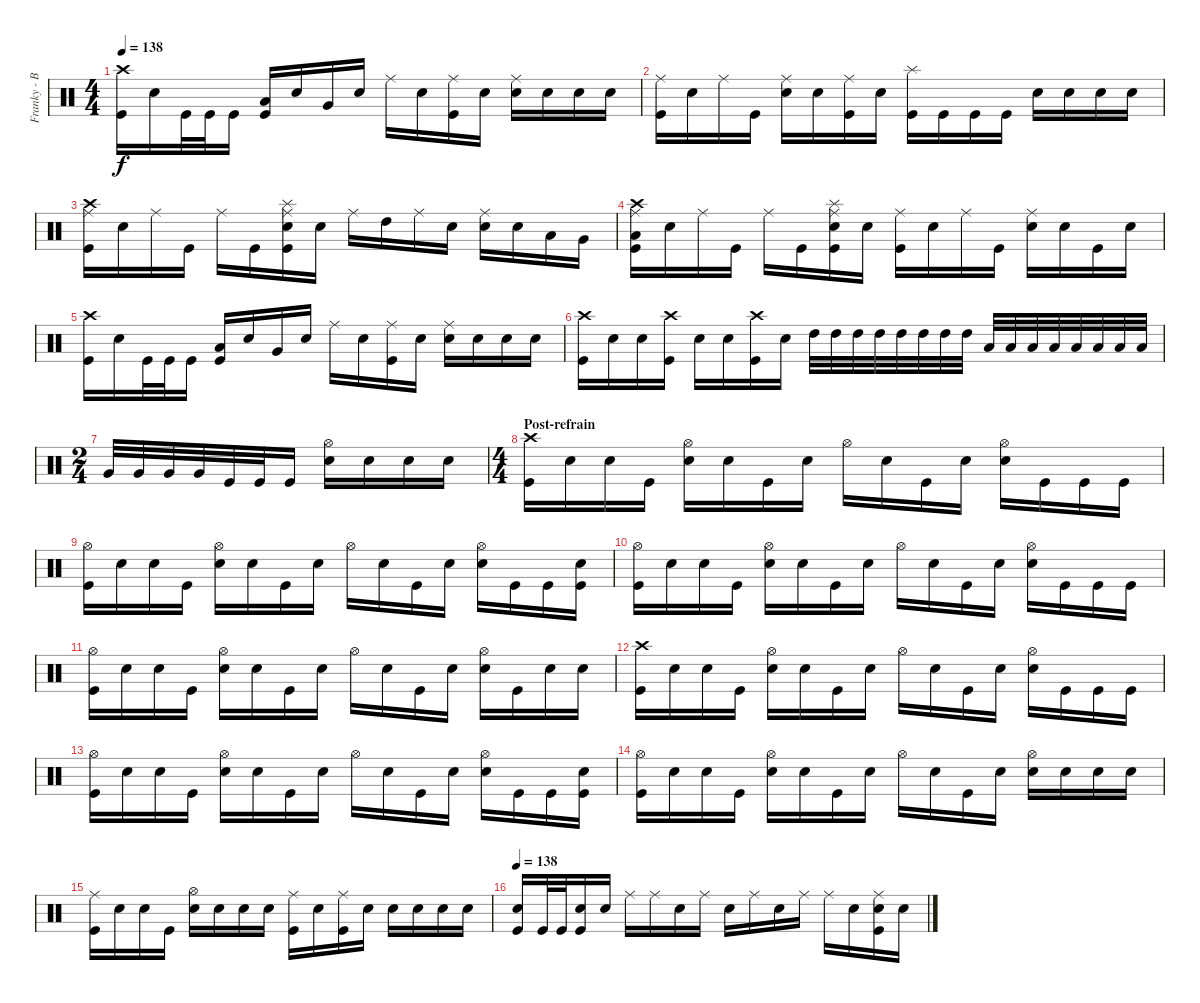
\track ("Franky - Batterie" "Franky - B") {instrument percussion}
\staff {score}
\articulation defaults
\ts (4 4)
\tempo 138
\clef neutral
\ks c
("Crash high (hit)" "Kick (hit)").16{dy f} "Snare (hit)".16 "Kick (hit)".32 "Kick (hit)".32 "Kick (hit)".16 ("Low Tom (hit)" "Kick (hit)").16 "Snare (hit)".16 "Very Low Tom (hit)".16 "Snare (hit)".16 "Ride (middle)".16 "Electric Snare (hit)".16 ("Ride (middle)" "Kick (hit)").16 "Snare (hit)".16 ("Ride (middle)" "Electric Snare (hit)").16 "Snare (hit)".16 "Electric Snare (hit)".16 "Electric Snare (hit)".16 |
("Ride (middle)" "Kick (hit)").16 "Snare (hit)".16 "Ride (middle)".16 "Kick (hit)".16 ("Ride (middle)" "Electric Snare (hit)").16 "Snare (hit)".16 ("Ride (middle)" "Kick (hit)").16 "Snare (hit)".16 ("Splash (hit)" "Kick (hit)").16 "Kick (hit)".16 "Kick (hit)".16 "Kick (hit)".16 "Electric Snare (hit)".16 "Electric Snare (hit)".16 "Electric Snare (hit)".16 "Electric Snare (hit)".16 |
("Crash high (hit)" "Ride (middle)" "Kick (hit)").16 "Snare (hit)".16 "Ride (middle)".16 "Kick (hit)".16 "Ride (middle)".16 "Kick (hit)".16 ("Splash (hit)" "Ride (middle)" "Electric Snare (hit)" "Kick (hit)").16 "Snare (hit)".16 "Ride (middle)".16 "High Tom (hit)".16 "Ride (middle)".16 "Snare (hit)".16 ("Ride (middle)" "Electric Snare (hit)").16 "Snare (hit)".16 "Low Tom (hit)".16 "Very Low Tom (hit)".16 |
("Crash high (hit)" "Ride (middle)" "Low Floor Tom (hit)" "Kick (hit)").16 "Snare (hit)".16 "Ride (middle)".16 "Kick (hit)".16 "Ride (middle)".16 "Kick (hit)".16 ("Splash (hit)" "Ride (middle)" "Electric Snare (hit)" "Kick (hit)").16 "Snare (hit)".16 ("Ride (middle)" "Kick (hit)").16 "Snare (hit)".16 "Ride (middle)".16 "Kick (hit)".16 ("Ride (middle)" "Electric Snare (hit)").16 "Snare (hit)".16 "Kick (hit)".16 "Snare (hit)".16 |
("Crash high (hit)" "Kick (hit)").16 "Snare (hit)".16 "Kick (hit)".32 "Kick (hit)".32 "Kick (hit)".16 ("Low Tom (hit)" "Kick (hit)").16 "Snare (hit)".16 "Very Low Tom (hit)".16 "Snare (hit)".16 "Ride (middle)".16 "Electric Snare (hit)".16 ("Ride (middle)" "Kick (hit)").16 "Snare (hit)".16 ("Ride (middle)" "Electric Snare (hit)").16 "Snare (hit)".16 "Electric Snare (hit)".16 "Electric Snare (hit)".16 |
("Crash high (hit)" "Kick (hit)").16 "Snare (hit)".16 "Snare (hit)".16 ("Crash high (hit)" "Kick (hit)").16 "Snare (hit)".16 "Snare (hit)".16 ("Crash high (hit)" "Kick (hit)").16 "Snare (hit)".16 "High Tom (hit)".32 "High Tom (hit)".32 "High Tom (hit)".32 "High Tom (hit)".32 "High Tom (hit)".32 "High Tom (hit)".32 "High Tom (hit)".32 "High Tom (hit)".32 "Low Tom (hit)".32 "Low Tom (hit)".32 "Low Tom (hit)".32 "Low Tom (hit)".32 "Low Tom (hit)".32 "Low Tom (hit)".32 "Low Tom (hit)".32 "Low Tom (hit)".32 |
\ts (2 4)
"Very Low Tom (hit)".32 "Very Low Tom (hit)".32 "Very Low Tom (hit)".32 "Very Low Tom (hit)".32 "Kick (hit)".32 "Kick (hit)".32 "Kick (hit)".16 ("Hi-Hat (open)" "Electric Snare (hit)").16 "Snare (hit)".16 "Snare (hit)".16 "Snare (hit)".16 |
\ts (4 4)
\section ("" "Post-refrain")
("Crash high (hit)" "Kick (hit)").16 "Snare (hit)".16 "Snare (hit)".16 "Kick (hit)".16 ("Hi-Hat (open)" "Electric Snare (hit)").16 "Snare (hit)".16 "Kick (hit)".16 "Snare (hit)".16 "Hi-Hat (open)".16 "Snare (hit)".16 "Kick (hit)".16 "Snare (hit)".16 ("Hi-Hat (open)" "Electric Snare (hit)").16 "Kick (hit)".16 "Kick (hit)".16 "Kick (hit)".16 |
("Hi-Hat (open)" "Kick (hit)").16 "Snare (hit)".16 "Snare (hit)".16 "Kick (hit)".16 ("Hi-Hat (open)" "Electric Snare (hit)").16 "Snare (hit)".16 "Kick (hit)".16 "Snare (hit)".16 "Hi-Hat (open)".16 "Electric Snare (hit)".16 "Kick (hit)".16 "Snare (hit)".16 ("Hi-Hat (open)" "Electric Snare (hit)").16 "Kick (hit)".16 "Kick (hit)".16 ("Electric Snare (hit)" "Kick (hit)").16 |
("Hi-Hat (open)" "Kick (hit)").16 "Snare (hit)".16 "Snare (hit)".16 "Kick (hit)".16 ("Hi-Hat (open)" "Electric Snare (hit)").16 "Snare (hit)".16 "Kick (hit)".16 "Snare (hit)".16 "Hi-Hat (open)".16 "Snare (hit)".16 "Kick (hit)".16 "Snare (hit)".16 ("Hi-Hat (open)" "Electric Snare (hit)").16 "Kick (hit)".16 "Kick (hit)".16 "Kick (hit)".16 |
("Hi-Hat (open)" "Kick (hit)").16 "Snare (hit)".16 "Snare (hit)".16 "Kick (hit)".16 ("Hi-Hat (open)" "Electric Snare (hit)").16 "Snare (hit)".16 "Kick (hit)".16 "Snare (hit)".16 "Hi-Hat (open)".16 "Electric Snare (hit)".16 "Kick (hit)".16 "Snare (hit)".16 ("Hi-Hat (open)" "Electric Snare (hit)").16 "Kick (hit)".16 "Electric Snare (hit)".16 "Electric Snare (hit)".16 |
("Crash high (hit)" "Kick (hit)").16 "Snare (hit)".16 "Snare (hit)".16 "Kick (hit)".16 ("Hi-Hat (open)" "Electric Snare (hit)").16 "Snare (hit)".16 "Kick (hit)".16 "Snare (hit)".16 "Hi-Hat (open)".16 "Snare (hit)".16 "Kick (hit)".16 "Snare (hit)".16 ("Hi-Hat (open)" "Electric Snare (hit)").16 "Kick (hit)".16 "Kick (hit)".16 "Kick (hit)".16 |
("Hi-Hat (open)" "Kick (hit)").16 "Snare (hit)".16 "Snare (hit)".16 "Kick (hit)".16 ("Hi-Hat (open)" "Electric Snare (hit)").16 "Snare (hit)".16 "Kick (hit)".16 "Snare (hit)".16 "Hi-Hat (open)".16 "Electric Snare (hit)".16 "Kick (hit)".16 "Snare (hit)".16 ("Hi-Hat (open)" "Electric Snare (hit)").16 "Kick (hit)".16 "Kick (hit)".16 ("Electric Snare (hit)" "Kick (hit)").16 |
("Hi-Hat (open)" "Kick (hit)").16 "Snare (hit)".16 "Snare (hit)".16 "Kick (hit)".16 ("Hi-Hat (open)" "Electric Snare (hit)").16 "Snare (hit)".16 "Kick (hit)".16 "Snare (hit)".16 "Hi-Hat (open)".16 "Snare (hit)".16 "Kick (hit)".16 "Snare (hit)".16 ("Hi-Hat (open)" "Electric Snare (hit)").16 "Electric Snare (hit)".16 "Electric Snare (hit)".16 "Electric Snare (hit)".16 |
("Ride (middle)" "Kick (hit)").16 "Electric Snare (hit)".16 "Snare (hit)".16 "Kick (hit)".16 ("Hi-Hat (open)" "Electric Snare (hit)").16 "Electric Snare (hit)".16 "Electric Snare (hit)".16 "Snare (hit)".16 ("Ride (middle)" "Kick (hit)").16 "Electric Snare (hit)".16 ("Ride (middle)" "Kick (hit)").16 "Electric Snare (hit)".16 "Electric Snare (hit)".16 "Snare (hit)".16 "Snare (hit)".16 "Snare (hit)".16 |
\section ("" "")
\tempo 138
("Electric Snare (hit)" "Kick (hit)").16{volume 16 balance 8} "Kick (hit)".32 "Kick (hit)".32 ("Electric Snare (hit)" "Kick (hit)").16 "Snare (hit)".16 "Ride (middle)".16 "Ride (middle)".16 "Snare (hit)".16 "Ride (middle)".16 "Snare (hit)".16 "Ride (middle)".16 "Snare (hit)".16 "Ride (middle)".16 "Ride (middle)".16 "Snare (hit)".16 ("Ride (middle)" "Electric Snare (hit)" "Kick (hit)").16 "Snare (hit)".16
